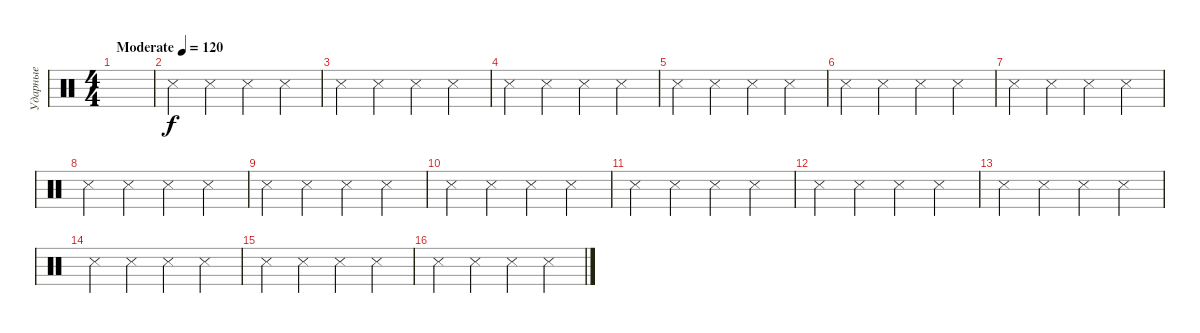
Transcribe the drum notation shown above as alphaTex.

\track ("Ударные" "Ударные") {mute instrument percussion}
\staff {score}
\articulation defaults
\ts (4 4)
\tempo (120 "Moderate")
\clef neutral
\ks c
|
"Metronome (hit)".4 "Metronome (hit)".4 "Metronome (hit)".4 "Metronome (hit)".4 |
"Metronome (hit)".4 "Metronome (hit)".4 "Metronome (hit)".4 "Metronome (hit)".4 |
"Metronome (hit)".4 "Metronome (hit)".4 "Metronome (hit)".4 "Metronome (hit)".4 |
"Metronome (hit)".4 "Metronome (hit)".4 "Metronome (hit)".4 "Metronome (hit)".4 |
"Metronome (hit)".4 "Metronome (hit)".4 "Metronome (hit)".4 "Metronome (hit)".4 |
"Metronome (hit)".4 "Metronome (hit)".4 "Metronome (hit)".4 "Metronome (hit)".4 |
"Metronome (hit)".4 "Metronome (hit)".4 "Metronome (hit)".4 "Metronome (hit)".4 |
"Metronome (hit)".4 "Metronome (hit)".4 "Metronome (hit)".4 "Metronome (hit)".4 |
"Metronome (hit)".4 "Metronome (hit)".4 "Metronome (hit)".4 "Metronome (hit)".4 |
"Metronome (hit)".4 "Metronome (hit)".4 "Metronome (hit)".4 "Metronome (hit)".4 |
"Metronome (hit)".4 "Metronome (hit)".4 "Metronome (hit)".4 "Metronome (hit)".4 |
"Metronome (hit)".4 "Metronome (hit)".4 "Metronome (hit)".4 "Metronome (hit)".4 |
"Metronome (hit)".4 "Metronome (hit)".4 "Metronome (hit)".4 "Metronome (hit)".4 |
"Metronome (hit)".4 "Metronome (hit)".4 "Metronome (hit)".4 "Metronome (hit)".4 |
"Metronome (hit)".4 "Metronome (hit)".4 "Metronome (hit)".4 "Metronome (hit)".4
